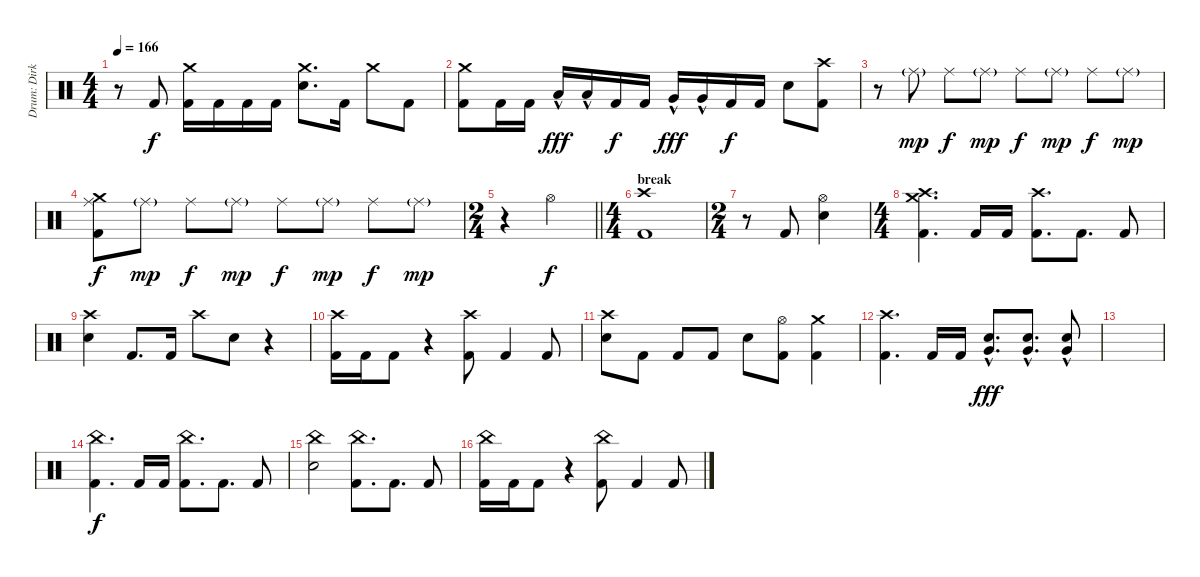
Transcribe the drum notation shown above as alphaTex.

\track ("Drum: Dirk" "Drum: Dirk") {instrument percussion}
\staff {score}
\articulation defaults
\ts (4 4)
\tempo 166
\clef neutral
\ks c
r.8{dy f} "Kick (hit) 2".8 ("Crash medium (hit)" "Kick (hit) 2").16 "Kick (hit) 2".16 "Kick (hit) 2".16 "Kick (hit) 2".16 ("Crash medium (hit)" "Electric Snare (hit)").8{d} "Kick (hit) 2".16 "Crash medium (hit)".8 "Kick (hit) 2".8 |
("Crash medium (hit)" "Kick (hit) 2").8 "Kick (hit) 2".16 "Kick (hit) 2".16 "Low Tom (hit)"{hac}.16{dy fff} "Low Tom (hit)"{hac}.16 "Kick (hit) 2".16{dy f} "Kick (hit) 2".16 "Very Low Tom (hit)"{hac}.16{dy fff} "Very Low Tom (hit)"{hac}.16 "Kick (hit) 2".16{dy f} "Kick (hit) 2".16 "Electric Snare (hit)".8 ("Crash high (hit)" "Kick (hit) 2").8 |
r.8 "Ride (middle)"{g}.8{dy mp} "Ride (middle)".8{dy f} "Ride (middle)"{g}.8{dy mp} "Ride (middle)".8{dy f} "Ride (middle)"{g}.8{dy mp} "Ride (middle)".8{dy f} "Ride (middle)"{g}.8{dy mp} |
("Crash medium (hit)" "Ride (middle)" "Kick (hit) 2").8{dy f} "Ride (middle)"{g}.8{dy mp} "Ride (middle)".8{dy f} "Ride (middle)"{g}.8{dy mp} "Ride (middle)".8{dy f} "Ride (middle)"{g}.8{dy mp} "Ride (middle)".8{dy f} "Ride (middle)"{g}.8{dy mp} |
\ts (2 4)
\barLineRight lightlight
r.4 "Hi-Hat (open)".4{dy f} |
\ts (4 4)
\section ("" "break")
("Crash high (hit)" "Kick (hit) 2").1 |
\ts (2 4)
r.8 "Kick (hit) 2".8 ("Hi-Hat (open)" "Electric Snare (hit)").4 |
\ts (4 4)
("Crash high (hit)" "Crash medium (hit)" "Kick (hit) 2").4{d} "Kick (hit) 2".16 "Kick (hit) 2".16 ("Crash high (hit)" "Kick (hit) 2").8{d} "Kick (hit) 2".8{d} "Kick (hit) 2".8 |
("Crash high (hit)" "Electric Snare (hit)").4 "Kick (hit) 2".8{d} "Kick (hit) 2".16 "Crash high (hit)".8 "Electric Snare (hit)".8 r.4 |
("Crash high (hit)" "Kick (hit) 2").16 "Kick (hit) 2".16 "Kick (hit) 2".8 r.4 ("Crash high (hit)" "Kick (hit) 2").8 "Kick (hit) 2".4 "Kick (hit) 2".8 |
("Crash high (hit)" "Electric Snare (hit)").8 "Kick (hit) 2".8 "Kick (hit) 2".8 "Kick (hit) 2".8 "Electric Snare (hit)".8 ("Hi-Hat (open)" "Kick (hit) 2").8 ("Crash medium (hit)" "Kick (hit) 2").4 |
("Crash high (hit)" "Kick (hit) 2").4{d} "Kick (hit) 2".16 "Kick (hit) 2".16 ("Electric Snare (hit)" "Very Low Tom (hit)"{hac}).8{d dy fff} ("Electric Snare (hit)" "Very Low Tom (hit)"{hac}).8{d} ("Electric Snare (hit)" "Very Low Tom (hit)"{hac}).8 |
|
("China (hit)" "Kick (hit) 2").4{d dy f} "Kick (hit) 2".16 "Kick (hit) 2".16 ("China (hit)" "Kick (hit) 2").8{d} "Kick (hit) 2".8{d} "Kick (hit) 2".8 |
("China (hit)" "Electric Snare (hit)").2 ("China (hit)" "Kick (hit) 2").8{d} "Kick (hit) 2".8{d} "Kick (hit) 2".8 |
("China (hit)" "Kick (hit) 2").16 "Kick (hit) 2".16 "Kick (hit) 2".8 r.4 ("China (hit)" "Kick (hit) 2").8 "Kick (hit) 2".4 "Kick (hit) 2".8
